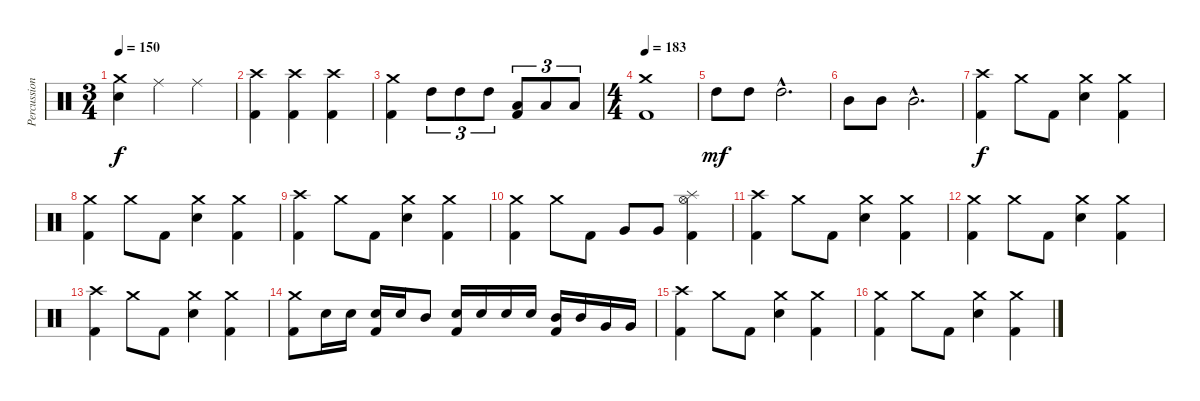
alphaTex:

\track ("Percussion" "Percussion") {instrument percussion}
\staff {score}
\articulation defaults
\ts (3 4)
\tempo 150
\clef neutral
\ks c
("Crash medium (hit)" "Electric Snare (hit)").4{dy f} "Ride (middle)".4 "Ride (middle)".4 |
("Crash high (hit)" "Kick (hit) 2").4 ("Crash high (hit)" "Kick (hit) 2").4 ("Crash high (hit)" "Kick (hit) 2").4 |
("Crash medium (hit)" "Kick (hit) 2").4 "High Tom (hit)".8{tu (3 2)} "High Tom (hit)".8{tu (3 2)} "High Tom (hit)".8{tu (3 2)} ("Low Tom (hit)" "Kick (hit) 2").8{tu (3 2)} "Low Tom (hit)".8{tu (3 2)} "Low Tom (hit)".8{tu (3 2)} |
\ts (4 4)
\tempo 183
("Crash medium (hit)" "Kick (hit) 2").1 |
"High Tom (hit)".8{dy mf} "High Tom (hit)".8 "High Tom (hit)"{hac}.2{d} |
"Mid Tom (hit)".8 "Mid Tom (hit)".8 "Mid Tom (hit)"{hac}.2{d} |
("Crash high (hit)" "Kick (hit) 2").4{dy f} "Crash medium (hit)".8 "Kick (hit) 2".8 ("Crash medium (hit)" "Electric Snare (hit)").4 ("Crash medium (hit)" "Kick (hit) 2").4 |
("Crash medium (hit)" "Kick (hit) 2").4 "Crash medium (hit)".8 "Kick (hit) 2".8 ("Crash medium (hit)" "Electric Snare (hit)").4 ("Crash medium (hit)" "Kick (hit) 2").4 |
("Crash high (hit)" "Kick (hit) 2").4 "Crash medium (hit)".8 "Kick (hit) 2".8 ("Crash medium (hit)" "Electric Snare (hit)").4 ("Crash medium (hit)" "Kick (hit) 2").4 |
("Crash medium (hit)" "Kick (hit) 2").4 "Crash medium (hit)".8 "Kick (hit) 2".8 "Very Low Tom (hit)".8 "Very Low Tom (hit)".8 ("Splash (hit)" "Hi-Hat (open)" "Kick (hit) 2").4 |
("Crash high (hit)" "Kick (hit) 2").4 "Crash medium (hit)".8 "Kick (hit) 2".8 ("Crash medium (hit)" "Electric Snare (hit)").4 ("Crash medium (hit)" "Kick (hit) 2").4 |
("Crash medium (hit)" "Kick (hit) 2").4 "Crash medium (hit)".8 "Kick (hit) 2".8 ("Crash medium (hit)" "Electric Snare (hit)").4 ("Crash medium (hit)" "Kick (hit) 2").4 |
("Crash high (hit)" "Kick (hit) 2").4 "Crash medium (hit)".8 "Kick (hit) 2".8 ("Crash medium (hit)" "Electric Snare (hit)").4 ("Crash medium (hit)" "Kick (hit) 2").4 |
("Crash medium (hit)" "Kick (hit) 2").8 "Electric Snare (hit)".16 "Electric Snare (hit)".16 ("Electric Snare (hit)" "Kick (hit) 2").16 "Electric Snare (hit)".16 "Mid Tom (hit)".8 ("Electric Snare (hit)" "Kick (hit) 2").16 "Electric Snare (hit)".16 "Electric Snare (hit)".16 "Electric Snare (hit)".16 ("Mid Tom (hit)" "Kick (hit) 2").16 "Mid Tom (hit)".16 "Very Low Tom (hit)".16 "Very Low Tom (hit)".16 |
("Crash high (hit)" "Kick (hit) 2").4 "Crash medium (hit)".8 "Kick (hit) 2".8 ("Crash medium (hit)" "Electric Snare (hit)").4 ("Crash medium (hit)" "Kick (hit) 2").4 |
("Crash medium (hit)" "Kick (hit) 2").4 "Crash medium (hit)".8 "Kick (hit) 2".8 ("Crash medium (hit)" "Electric Snare (hit)").4 ("Crash medium (hit)" "Kick (hit) 2").4
